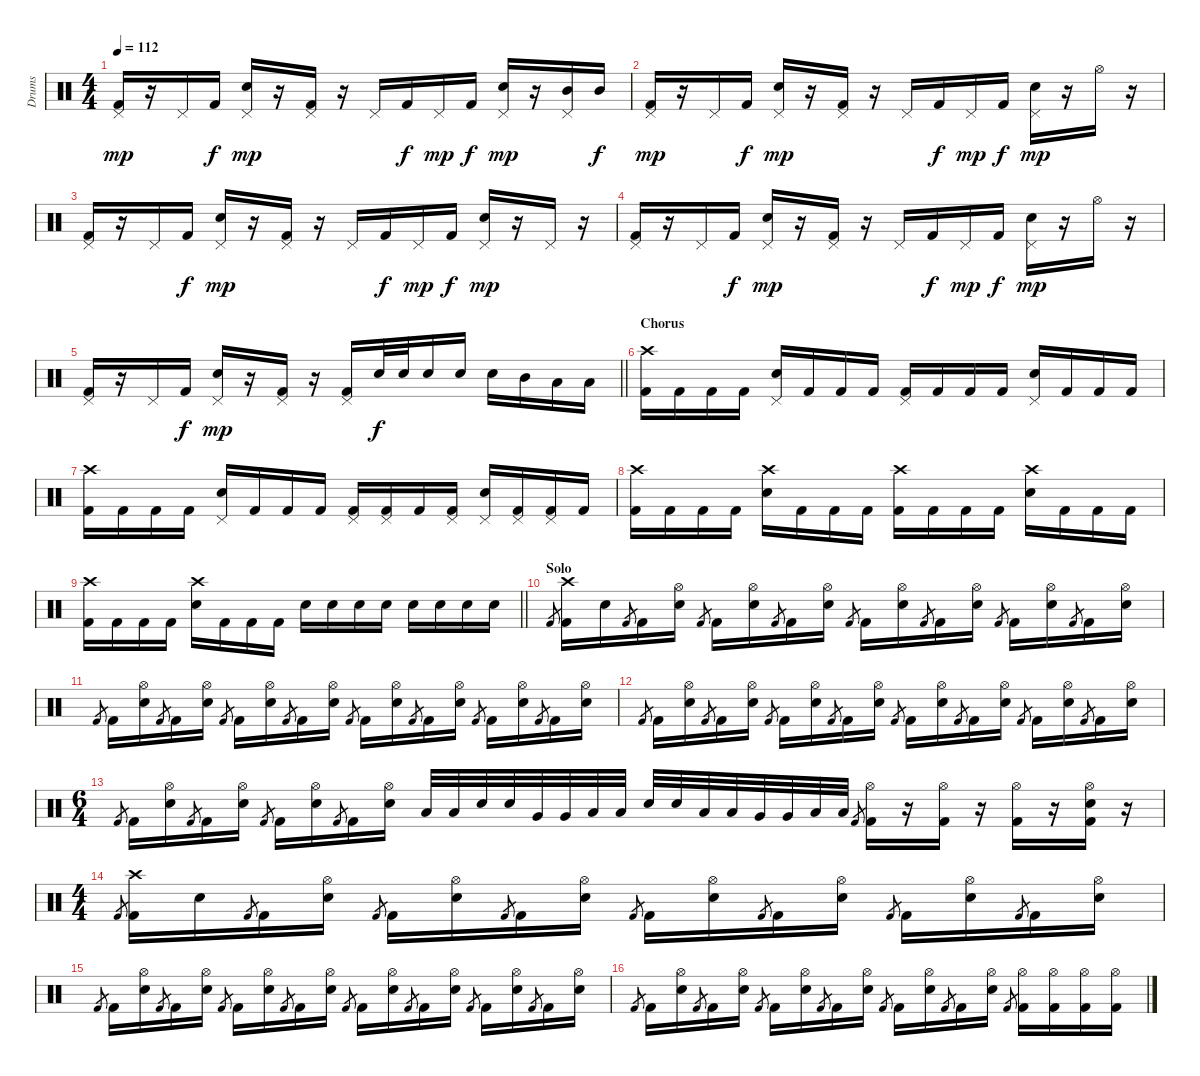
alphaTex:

\track ("Drums" "Drums") {instrument percussion}
\staff {score}
\articulation defaults
\ts (4 4)
\tempo 112
\clef neutral
\ks c
("Pedal Hi-Hat (hit)" "Kick (hit) 2").16{dy mp} r.16 "Pedal Hi-Hat (hit)".16 "Kick (hit) 2".16{dy f} ("Pedal Hi-Hat (hit)" "Snare (hit) 2").16{dy mp} r.16 ("Pedal Hi-Hat (hit)" "Kick (hit) 2").16 r.16 "Pedal Hi-Hat (hit)".16 "Kick (hit) 2".16{dy f} "Pedal Hi-Hat (hit)".16{dy mp} "Kick (hit) 2".16{dy f} ("Pedal Hi-Hat (hit)" "Snare (hit) 2").16{dy mp} r.16 ("Pedal Hi-Hat (hit)" "Mid Tom (hit)").16 "Mid Tom (hit)".16{dy f} |
("Pedal Hi-Hat (hit)" "Kick (hit) 2").16{dy mp} r.16 "Pedal Hi-Hat (hit)".16 "Kick (hit) 2".16{dy f} ("Pedal Hi-Hat (hit)" "Snare (hit) 2").16{dy mp} r.16 ("Pedal Hi-Hat (hit)" "Kick (hit) 2").16 r.16 "Pedal Hi-Hat (hit)".16 "Kick (hit) 2".16{dy f} "Pedal Hi-Hat (hit)".16{dy mp} "Kick (hit) 2".16{dy f} ("Pedal Hi-Hat (hit)" "Snare (hit) 2").16{dy mp} r.16 "Hi-Hat (open)".16 r.16 |
("Pedal Hi-Hat (hit)" "Kick (hit) 2").16 r.16 "Pedal Hi-Hat (hit)".16 "Kick (hit) 2".16{dy f} ("Pedal Hi-Hat (hit)" "Snare (hit) 2").16{dy mp} r.16 ("Pedal Hi-Hat (hit)" "Kick (hit) 2").16 r.16 "Pedal Hi-Hat (hit)".16 "Kick (hit) 2".16{dy f} "Pedal Hi-Hat (hit)".16{dy mp} "Kick (hit) 2".16{dy f} ("Pedal Hi-Hat (hit)" "Snare (hit) 2").16{dy mp} r.16 "Pedal Hi-Hat (hit)".16 r.16 |
("Pedal Hi-Hat (hit)" "Kick (hit) 2").16 r.16 "Pedal Hi-Hat (hit)".16 "Kick (hit) 2".16{dy f} ("Pedal Hi-Hat (hit)" "Snare (hit) 2").16{dy mp} r.16 ("Pedal Hi-Hat (hit)" "Kick (hit) 2").16 r.16 "Pedal Hi-Hat (hit)".16 "Kick (hit) 2".16{dy f} "Pedal Hi-Hat (hit)".16{dy mp} "Kick (hit) 2".16{dy f} ("Pedal Hi-Hat (hit)" "Snare (hit) 2").16{dy mp} r.16 "Hi-Hat (open)".16 r.16 |
\barLineRight lightlight
("Pedal Hi-Hat (hit)" "Kick (hit) 2").16 r.16 "Pedal Hi-Hat (hit)".16 "Kick (hit) 2".16{dy f} ("Pedal Hi-Hat (hit)" "Snare (hit) 2").16{dy mp} r.16 ("Pedal Hi-Hat (hit)" "Kick (hit) 2").16 r.16 ("Pedal Hi-Hat (hit)" "Kick (hit) 2").16 "Snare (hit) 2".32{dy f} "Snare (hit) 2".32 "Snare (hit) 2".16 "Snare (hit) 2".16 "Snare (hit) 2".16 "Mid Tom (hit)".16 "Low Tom (hit)".16 "Low Tom (hit)".16 |
\section ("" "Chorus")
("Crash high (hit)" "Kick (hit) 2").16 "Kick (hit) 2".16 "Kick (hit) 2".16 "Kick (hit) 2".16 ("Pedal Hi-Hat (hit)" "Snare (hit) 2").16 "Kick (hit) 2".16 "Kick (hit) 2".16 "Kick (hit) 2".16 ("Pedal Hi-Hat (hit)" "Kick (hit) 2").16 "Kick (hit) 2".16 "Kick (hit) 2".16 "Kick (hit) 2".16 ("Pedal Hi-Hat (hit)" "Snare (hit) 2").16 "Kick (hit) 2".16 "Kick (hit) 2".16 "Kick (hit) 2".16 |
("Crash high (hit)" "Kick (hit) 2").16 "Kick (hit) 2".16 "Kick (hit) 2".16 "Kick (hit) 2".16 ("Pedal Hi-Hat (hit)" "Snare (hit) 2").16 "Kick (hit) 2".16 "Kick (hit) 2".16 "Kick (hit) 2".16 ("Pedal Hi-Hat (hit)" "Kick (hit) 2").16 ("Pedal Hi-Hat (hit)" "Kick (hit) 2").16 "Kick (hit) 2".16 ("Pedal Hi-Hat (hit)" "Kick (hit) 2").16 ("Pedal Hi-Hat (hit)" "Snare (hit) 2").16 ("Pedal Hi-Hat (hit)" "Kick (hit) 2").16 ("Pedal Hi-Hat (hit)" "Kick (hit) 2").16 "Kick (hit) 2".16 |
("Crash high (hit)" "Kick (hit) 2").16 "Kick (hit) 2".16 "Kick (hit) 2".16 "Kick (hit) 2".16 ("Crash high (hit)" "Snare (hit) 2").16 "Kick (hit) 2".16 "Kick (hit) 2".16 "Kick (hit) 2".16 ("Crash high (hit)" "Kick (hit) 2").16 "Kick (hit) 2".16 "Kick (hit) 2".16 "Kick (hit) 2".16 ("Crash high (hit)" "Snare (hit) 2").16 "Kick (hit) 2".16 "Kick (hit) 2".16 "Kick (hit) 2".16 |
\barLineRight lightlight
("Crash high (hit)" "Kick (hit) 2").16 "Kick (hit) 2".16 "Kick (hit) 2".16 "Kick (hit) 2".16 ("Crash high (hit)" "Snare (hit) 2").16 "Kick (hit) 2".16 "Kick (hit) 2".16 "Kick (hit) 2".16 "Snare (hit) 2".16 "Snare (hit) 2".16 "Snare (hit) 2".16 "Snare (hit) 2".16 "Snare (hit) 2".16 "Snare (hit) 2".16 "Snare (hit) 2".16 "Snare (hit) 2".16 |
\section ("" "Solo")
"Kick (hit) 2".8{gr} ("Crash high (hit)" "Kick (hit) 2").16 "Snare (hit) 2".16 "Kick (hit) 2".8{gr} "Kick (hit) 2".16 ("Hi-Hat (open)" "Snare (hit) 2").16 "Kick (hit) 2".8{gr} "Kick (hit) 2".16 ("Hi-Hat (open)" "Snare (hit) 2").16 "Kick (hit) 2".8{gr} "Kick (hit) 2".16 ("Hi-Hat (open)" "Snare (hit) 2").16 "Kick (hit) 2".8{gr} "Kick (hit) 2".16 ("Hi-Hat (open)" "Snare (hit) 2").16 "Kick (hit) 2".8{gr} "Kick (hit) 2".16 ("Hi-Hat (open)" "Snare (hit) 2").16 "Kick (hit) 2".8{gr} "Kick (hit) 2".16 ("Hi-Hat (open)" "Snare (hit) 2").16 "Kick (hit) 2".8{gr} "Kick (hit) 2".16 ("Hi-Hat (open)" "Snare (hit) 2").16 |
"Kick (hit) 2".8{gr} "Kick (hit) 2".16 ("Hi-Hat (open)" "Snare (hit) 2").16 "Kick (hit) 2".8{gr} "Kick (hit) 2".16 ("Hi-Hat (open)" "Snare (hit) 2").16 "Kick (hit) 2".8{gr} "Kick (hit) 2".16 ("Hi-Hat (open)" "Snare (hit) 2").16 "Kick (hit) 2".8{gr} "Kick (hit) 2".16 ("Hi-Hat (open)" "Snare (hit) 2").16 "Kick (hit) 2".8{gr} "Kick (hit) 2".16 ("Hi-Hat (open)" "Snare (hit) 2").16 "Kick (hit) 2".8{gr} "Kick (hit) 2".16 ("Hi-Hat (open)" "Snare (hit) 2").16 "Kick (hit) 2".8{gr} "Kick (hit) 2".16 ("Hi-Hat (open)" "Snare (hit) 2").16 "Kick (hit) 2".8{gr} "Kick (hit) 2".16 ("Hi-Hat (open)" "Snare (hit) 2").16 |
"Kick (hit) 2".8{gr} "Kick (hit) 2".16 ("Hi-Hat (open)" "Snare (hit) 2").16 "Kick (hit) 2".8{gr} "Kick (hit) 2".16 ("Hi-Hat (open)" "Snare (hit) 2").16 "Kick (hit) 2".8{gr} "Kick (hit) 2".16 ("Hi-Hat (open)" "Snare (hit) 2").16 "Kick (hit) 2".8{gr} "Kick (hit) 2".16 ("Hi-Hat (open)" "Snare (hit) 2").16 "Kick (hit) 2".8{gr} "Kick (hit) 2".16 ("Hi-Hat (open)" "Snare (hit) 2").16 "Kick (hit) 2".8{gr} "Kick (hit) 2".16 ("Hi-Hat (open)" "Snare (hit) 2").16 "Kick (hit) 2".8{gr} "Kick (hit) 2".16 ("Hi-Hat (open)" "Snare (hit) 2").16 "Kick (hit) 2".8{gr} "Kick (hit) 2".16 ("Hi-Hat (open)" "Snare (hit) 2").16 |
\ts (6 4)
"Kick (hit) 2".8{gr} "Kick (hit) 2".16 ("Hi-Hat (open)" "Snare (hit) 2").16 "Kick (hit) 2".8{gr} "Kick (hit) 2".16 ("Hi-Hat (open)" "Snare (hit) 2").16 "Kick (hit) 2".8{gr} "Kick (hit) 2".16 ("Hi-Hat (open)" "Snare (hit) 2").16 "Kick (hit) 2".8{gr} "Kick (hit) 2".16 ("Hi-Hat (open)" "Snare (hit) 2").16 "Low Tom (hit)".32 "Low Tom (hit)".32 "Snare (hit) 2".32 "Snare (hit) 2".32 "Very Low Tom (hit)".32 "Very Low Tom (hit)".32 "Low Floor Tom (hit)".32 "Low Floor Tom (hit)".32 "Snare (hit) 2".32 "Snare (hit) 2".32 "Low Tom (hit)".32 "Low Tom (hit)".32 "Very Low Tom (hit)".32 "Very Low Tom (hit)".32 "Low Floor Tom (hit)".32 "Low Floor Tom (hit)".32 "Kick (hit) 2".8{gr} ("Hi-Hat (open)" "Kick (hit) 2").16 r.16 ("Hi-Hat (open)" "Kick (hit) 2").16 r.16 ("Hi-Hat (open)" "Kick (hit) 2").16 r.16 ("Hi-Hat (open)" "Snare (hit) 2" "Kick (hit) 2").16 r.16 |
\ts (4 4)
"Kick (hit) 2".8{gr} ("Crash high (hit)" "Kick (hit) 2").16 "Snare (hit) 2".16 "Kick (hit) 2".8{gr} "Kick (hit) 2".16 ("Hi-Hat (open)" "Snare (hit) 2").16 "Kick (hit) 2".8{gr} "Kick (hit) 2".16 ("Hi-Hat (open)" "Snare (hit) 2").16 "Kick (hit) 2".8{gr} "Kick (hit) 2".16 ("Hi-Hat (open)" "Snare (hit) 2").16 "Kick (hit) 2".8{gr} "Kick (hit) 2".16 ("Hi-Hat (open)" "Snare (hit) 2").16 "Kick (hit) 2".8{gr} "Kick (hit) 2".16 ("Hi-Hat (open)" "Snare (hit) 2").16 "Kick (hit) 2".8{gr} "Kick (hit) 2".16 ("Hi-Hat (open)" "Snare (hit) 2").16 "Kick (hit) 2".8{gr} "Kick (hit) 2".16 ("Hi-Hat (open)" "Snare (hit) 2").16 |
"Kick (hit) 2".8{gr} "Kick (hit) 2".16 ("Hi-Hat (open)" "Snare (hit) 2").16 "Kick (hit) 2".8{gr} "Kick (hit) 2".16 ("Hi-Hat (open)" "Snare (hit) 2").16 "Kick (hit) 2".8{gr} "Kick (hit) 2".16 ("Hi-Hat (open)" "Snare (hit) 2").16 "Kick (hit) 2".8{gr} "Kick (hit) 2".16 ("Hi-Hat (open)" "Snare (hit) 2").16 "Kick (hit) 2".8{gr} "Kick (hit) 2".16 ("Hi-Hat (open)" "Snare (hit) 2").16 "Kick (hit) 2".8{gr} "Kick (hit) 2".16 ("Hi-Hat (open)" "Snare (hit) 2").16 "Kick (hit) 2".8{gr} "Kick (hit) 2".16 ("Hi-Hat (open)" "Snare (hit) 2").16 "Kick (hit) 2".8{gr} "Kick (hit) 2".16 ("Hi-Hat (open)" "Snare (hit) 2").16 |
"Kick (hit) 2".8{gr} "Kick (hit) 2".16 ("Hi-Hat (open)" "Snare (hit) 2").16 "Kick (hit) 2".8{gr} "Kick (hit) 2".16 ("Hi-Hat (open)" "Snare (hit) 2").16 "Kick (hit) 2".8{gr} "Kick (hit) 2".16 ("Hi-Hat (open)" "Snare (hit) 2").16 "Kick (hit) 2".8{gr} "Kick (hit) 2".16 ("Hi-Hat (open)" "Snare (hit) 2").16 "Kick (hit) 2".8{gr} "Kick (hit) 2".16 ("Hi-Hat (open)" "Snare (hit) 2").16 "Kick (hit) 2".8{gr} "Kick (hit) 2".16 ("Hi-Hat (open)" "Snare (hit) 2").16 "Kick (hit) 2".8{gr} ("Hi-Hat (open)" "Kick (hit) 2").16 ("Hi-Hat (open)" "Kick (hit) 2").16 ("Hi-Hat (open)" "Kick (hit) 2").16 ("Hi-Hat (open)" "Kick (hit) 2").16
